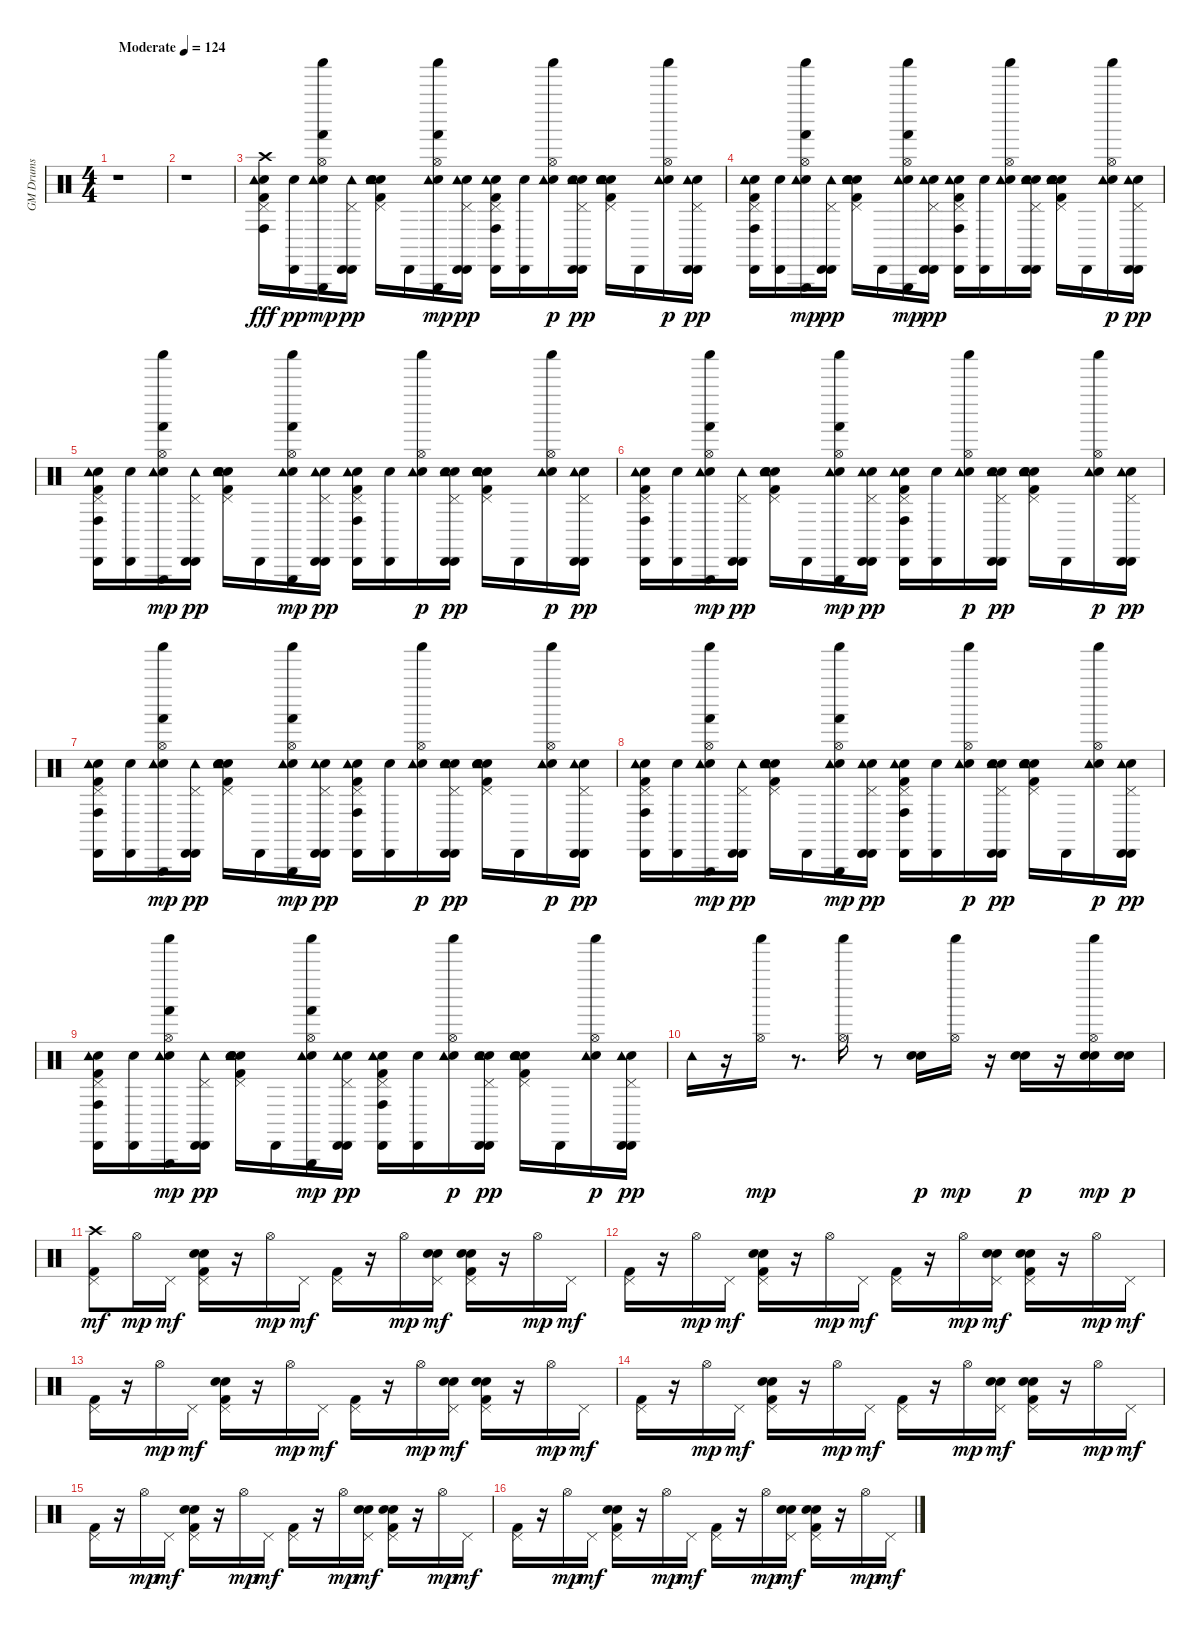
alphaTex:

\track ("GM Drums" "GM Drums") {instrument percussion}
\staff {score}
\articulation defaults
\ts (4 4)
\tempo (124 "Moderate")
\clef neutral
\ks c
r.1{dy fff} |
r.1 |
("Snare (hit)" "Kick (hit) 2" "Pedal Hi-Hat (hit)" "Crash high (hit)" "Tambourine (hit)" "Conga high (hit)").16 ("Snare (hit)" "Cabasa (hit)").16{dy pp} ("Snare (hit)" "Hi-Hat (open)" "Tambourine (hit)" "Hand (hit)" "Triangle (hit)" "Shaker (hit)").16{dy mp} ("Pedal Hi-Hat (hit)" "Tambourine (hit)" "Cabasa (hit)" "Cabasa (hit)").16{dy pp} ("Snare (hit)" "Kick (hit) 2" "Snare (hit) 2" "Hand Clap (hit)" "Pedal Hi-Hat (hit)" "Tambourine (hit)").16 "Cabasa (hit)".16 ("Snare (hit)" "Hi-Hat (open)" "Tambourine (hit)" "Hand (hit)" "Triangle (hit)" "Shaker (hit)").16{dy mp} ("Snare (hit)" "Pedal Hi-Hat (hit)" "Tambourine (hit)" "Cabasa (hit)" "Cabasa (hit)").16{dy pp} ("Snare (hit)" "Kick (hit) 2" "Pedal Hi-Hat (hit)" "Tambourine (hit)" "Conga high (hit)" "Cabasa (hit)").16 ("Snare (hit)" "Cabasa (hit)").16 ("Snare (hit)" "Hi-Hat (open)" "Tambourine (hit)" "Shaker (hit)").16{dy p} ("Snare (hit) 2" "Hand Clap (hit)" "Pedal Hi-Hat (hit)" "Tambourine (hit)" "Cabasa (hit)" "Cabasa (hit)").16{dy pp} ("Snare (hit)" "Kick (hit) 2" "Snare (hit) 2" "Hand Clap (hit)" "Pedal Hi-Hat (hit)" "Tambourine (hit)").16 "Cabasa (hit)".16 ("Snare (hit)" "Hi-Hat (open)" "Tambourine (hit)" "Shaker (hit)").16{dy p} ("Snare (hit)" "Pedal Hi-Hat (hit)" "Tambourine (hit)" "Cabasa (hit)" "Cabasa (hit)").16{dy pp} |
("Snare (hit)" "Kick (hit) 2" "Pedal Hi-Hat (hit)" "Tambourine (hit)" "Conga high (hit)" "Cabasa (hit)").16 ("Snare (hit)" "Cabasa (hit)").16 ("Snare (hit)" "Hi-Hat (open)" "Tambourine (hit)" "Hand (hit)" "Triangle (hit)" "Shaker (hit)").16{dy mp} ("Pedal Hi-Hat (hit)" "Tambourine (hit)" "Cabasa (hit)" "Cabasa (hit)").16{dy pp} ("Snare (hit)" "Kick (hit) 2" "Snare (hit) 2" "Hand Clap (hit)" "Pedal Hi-Hat (hit)" "Tambourine (hit)").16 "Cabasa (hit)".16 ("Snare (hit)" "Hi-Hat (open)" "Tambourine (hit)" "Hand (hit)" "Triangle (hit)" "Shaker (hit)").16{dy mp} ("Snare (hit)" "Pedal Hi-Hat (hit)" "Tambourine (hit)" "Cabasa (hit)" "Cabasa (hit)").16{dy pp} ("Snare (hit)" "Kick (hit) 2" "Pedal Hi-Hat (hit)" "Tambourine (hit)" "Conga high (hit)" "Cabasa (hit)").16 ("Snare (hit)" "Cabasa (hit)").16 ("Snare (hit)" "Hi-Hat (open)" "Tambourine (hit)" "Shaker (hit)").16 ("Snare (hit) 2" "Hand Clap (hit)" "Pedal Hi-Hat (hit)" "Tambourine (hit)" "Cabasa (hit)" "Cabasa (hit)").16 ("Snare (hit)" "Kick (hit) 2" "Snare (hit) 2" "Hand Clap (hit)" "Pedal Hi-Hat (hit)" "Tambourine (hit)").16 "Cabasa (hit)".16 ("Snare (hit)" "Hi-Hat (open)" "Tambourine (hit)" "Shaker (hit)").16{dy p} ("Snare (hit)" "Pedal Hi-Hat (hit)" "Tambourine (hit)" "Cabasa (hit)" "Cabasa (hit)").16{dy pp} |
("Snare (hit)" "Kick (hit) 2" "Pedal Hi-Hat (hit)" "Tambourine (hit)" "Conga high (hit)" "Cabasa (hit)").16 ("Snare (hit)" "Cabasa (hit)").16 ("Snare (hit)" "Hi-Hat (open)" "Tambourine (hit)" "Hand (hit)" "Triangle (hit)" "Shaker (hit)").16{dy mp} ("Pedal Hi-Hat (hit)" "Tambourine (hit)" "Cabasa (hit)" "Cabasa (hit)").16{dy pp} ("Snare (hit)" "Kick (hit) 2" "Snare (hit) 2" "Hand Clap (hit)" "Pedal Hi-Hat (hit)" "Tambourine (hit)").16 "Cabasa (hit)".16 ("Snare (hit)" "Hi-Hat (open)" "Tambourine (hit)" "Hand (hit)" "Triangle (hit)" "Shaker (hit)").16{dy mp} ("Snare (hit)" "Pedal Hi-Hat (hit)" "Tambourine (hit)" "Cabasa (hit)" "Cabasa (hit)").16{dy pp} ("Snare (hit)" "Kick (hit) 2" "Pedal Hi-Hat (hit)" "Tambourine (hit)" "Conga high (hit)" "Cabasa (hit)").16 ("Snare (hit)" "Cabasa (hit)").16 ("Snare (hit)" "Hi-Hat (open)" "Tambourine (hit)" "Shaker (hit)").16{dy p} ("Snare (hit) 2" "Hand Clap (hit)" "Pedal Hi-Hat (hit)" "Tambourine (hit)" "Cabasa (hit)" "Cabasa (hit)").16{dy pp} ("Snare (hit)" "Kick (hit) 2" "Snare (hit) 2" "Hand Clap (hit)" "Pedal Hi-Hat (hit)" "Tambourine (hit)").16 "Cabasa (hit)".16 ("Snare (hit)" "Hi-Hat (open)" "Tambourine (hit)" "Shaker (hit)").16{dy p} ("Snare (hit)" "Pedal Hi-Hat (hit)" "Tambourine (hit)" "Cabasa (hit)" "Cabasa (hit)").16{dy pp} |
("Snare (hit)" "Kick (hit) 2" "Pedal Hi-Hat (hit)" "Tambourine (hit)" "Conga high (hit)" "Cabasa (hit)").16 ("Snare (hit)" "Cabasa (hit)").16 ("Snare (hit)" "Hi-Hat (open)" "Tambourine (hit)" "Hand (hit)" "Triangle (hit)" "Shaker (hit)").16{dy mp} ("Pedal Hi-Hat (hit)" "Tambourine (hit)" "Cabasa (hit)" "Cabasa (hit)").16{dy pp} ("Snare (hit)" "Kick (hit) 2" "Snare (hit) 2" "Hand Clap (hit)" "Pedal Hi-Hat (hit)" "Tambourine (hit)").16 "Cabasa (hit)".16 ("Snare (hit)" "Hi-Hat (open)" "Tambourine (hit)" "Hand (hit)" "Triangle (hit)" "Shaker (hit)").16{dy mp} ("Snare (hit)" "Pedal Hi-Hat (hit)" "Tambourine (hit)" "Cabasa (hit)" "Cabasa (hit)").16{dy pp} ("Snare (hit)" "Kick (hit) 2" "Pedal Hi-Hat (hit)" "Tambourine (hit)" "Conga high (hit)" "Cabasa (hit)").16 ("Snare (hit)" "Cabasa (hit)").16 ("Snare (hit)" "Hi-Hat (open)" "Tambourine (hit)" "Shaker (hit)").16{dy p} ("Snare (hit) 2" "Hand Clap (hit)" "Pedal Hi-Hat (hit)" "Tambourine (hit)" "Cabasa (hit)" "Cabasa (hit)").16{dy pp} ("Snare (hit)" "Kick (hit) 2" "Snare (hit) 2" "Hand Clap (hit)" "Pedal Hi-Hat (hit)" "Tambourine (hit)").16 "Cabasa (hit)".16 ("Snare (hit)" "Hi-Hat (open)" "Tambourine (hit)" "Shaker (hit)").16{dy p} ("Snare (hit)" "Pedal Hi-Hat (hit)" "Tambourine (hit)" "Cabasa (hit)" "Cabasa (hit)").16{dy pp} |
("Snare (hit)" "Kick (hit) 2" "Pedal Hi-Hat (hit)" "Tambourine (hit)" "Conga high (hit)" "Cabasa (hit)").16 ("Snare (hit)" "Cabasa (hit)").16 ("Snare (hit)" "Hi-Hat (open)" "Tambourine (hit)" "Hand (hit)" "Triangle (hit)" "Shaker (hit)").16{dy mp} ("Pedal Hi-Hat (hit)" "Tambourine (hit)" "Cabasa (hit)" "Cabasa (hit)").16{dy pp} ("Snare (hit)" "Kick (hit) 2" "Snare (hit) 2" "Hand Clap (hit)" "Pedal Hi-Hat (hit)" "Tambourine (hit)").16 "Cabasa (hit)".16 ("Snare (hit)" "Hi-Hat (open)" "Tambourine (hit)" "Hand (hit)" "Triangle (hit)" "Shaker (hit)").16{dy mp} ("Snare (hit)" "Pedal Hi-Hat (hit)" "Tambourine (hit)" "Cabasa (hit)" "Cabasa (hit)").16{dy pp} ("Snare (hit)" "Kick (hit) 2" "Pedal Hi-Hat (hit)" "Tambourine (hit)" "Conga high (hit)" "Cabasa (hit)").16 ("Snare (hit)" "Cabasa (hit)").16 ("Snare (hit)" "Hi-Hat (open)" "Tambourine (hit)" "Shaker (hit)").16{dy p} ("Snare (hit) 2" "Hand Clap (hit)" "Pedal Hi-Hat (hit)" "Tambourine (hit)" "Cabasa (hit)" "Cabasa (hit)").16{dy pp} ("Snare (hit)" "Kick (hit) 2" "Snare (hit) 2" "Hand Clap (hit)" "Pedal Hi-Hat (hit)" "Tambourine (hit)").16 "Cabasa (hit)".16 ("Snare (hit)" "Hi-Hat (open)" "Tambourine (hit)" "Shaker (hit)").16{dy p} ("Snare (hit)" "Pedal Hi-Hat (hit)" "Tambourine (hit)" "Cabasa (hit)" "Cabasa (hit)").16{dy pp} |
("Snare (hit)" "Kick (hit) 2" "Pedal Hi-Hat (hit)" "Tambourine (hit)" "Conga high (hit)" "Cabasa (hit)").16 ("Snare (hit)" "Cabasa (hit)").16 ("Snare (hit)" "Hi-Hat (open)" "Tambourine (hit)" "Hand (hit)" "Triangle (hit)" "Shaker (hit)").16{dy mp} ("Pedal Hi-Hat (hit)" "Tambourine (hit)" "Cabasa (hit)" "Cabasa (hit)").16{dy pp} ("Snare (hit)" "Kick (hit) 2" "Snare (hit) 2" "Hand Clap (hit)" "Pedal Hi-Hat (hit)" "Tambourine (hit)").16 "Cabasa (hit)".16 ("Snare (hit)" "Hi-Hat (open)" "Tambourine (hit)" "Hand (hit)" "Triangle (hit)" "Shaker (hit)").16{dy mp} ("Snare (hit)" "Pedal Hi-Hat (hit)" "Tambourine (hit)" "Cabasa (hit)" "Cabasa (hit)").16{dy pp} ("Snare (hit)" "Kick (hit) 2" "Pedal Hi-Hat (hit)" "Tambourine (hit)" "Conga high (hit)" "Cabasa (hit)").16 ("Snare (hit)" "Cabasa (hit)").16 ("Snare (hit)" "Hi-Hat (open)" "Tambourine (hit)" "Shaker (hit)").16{dy p} ("Snare (hit) 2" "Hand Clap (hit)" "Pedal Hi-Hat (hit)" "Tambourine (hit)" "Cabasa (hit)" "Cabasa (hit)").16{dy pp} ("Snare (hit)" "Kick (hit) 2" "Snare (hit) 2" "Hand Clap (hit)" "Pedal Hi-Hat (hit)" "Tambourine (hit)").16 "Cabasa (hit)".16 ("Snare (hit)" "Hi-Hat (open)" "Tambourine (hit)" "Shaker (hit)").16{dy p} ("Snare (hit)" "Pedal Hi-Hat (hit)" "Tambourine (hit)" "Cabasa (hit)" "Cabasa (hit)").16{dy pp} |
("Snare (hit)" "Kick (hit) 2" "Pedal Hi-Hat (hit)" "Tambourine (hit)" "Conga high (hit)" "Cabasa (hit)").16 ("Snare (hit)" "Cabasa (hit)").16 ("Snare (hit)" "Hi-Hat (open)" "Tambourine (hit)" "Hand (hit)" "Triangle (hit)" "Shaker (hit)").16{dy mp} ("Pedal Hi-Hat (hit)" "Tambourine (hit)" "Cabasa (hit)" "Cabasa (hit)").16{dy pp} ("Snare (hit)" "Kick (hit) 2" "Snare (hit) 2" "Hand Clap (hit)" "Pedal Hi-Hat (hit)" "Tambourine (hit)").16 "Cabasa (hit)".16 ("Snare (hit)" "Hi-Hat (open)" "Tambourine (hit)" "Hand (hit)" "Triangle (hit)" "Shaker (hit)").16{dy mp} ("Snare (hit)" "Pedal Hi-Hat (hit)" "Tambourine (hit)" "Cabasa (hit)" "Cabasa (hit)").16{dy pp} ("Snare (hit)" "Kick (hit) 2" "Pedal Hi-Hat (hit)" "Tambourine (hit)" "Conga high (hit)" "Cabasa (hit)").16 ("Snare (hit)" "Cabasa (hit)").16 ("Snare (hit)" "Hi-Hat (open)" "Tambourine (hit)" "Shaker (hit)").16{dy p} ("Snare (hit) 2" "Hand Clap (hit)" "Pedal Hi-Hat (hit)" "Tambourine (hit)" "Cabasa (hit)" "Cabasa (hit)").16{dy pp} ("Snare (hit)" "Kick (hit) 2" "Snare (hit) 2" "Hand Clap (hit)" "Pedal Hi-Hat (hit)" "Tambourine (hit)").16 "Cabasa (hit)".16 ("Snare (hit)" "Hi-Hat (open)" "Tambourine (hit)" "Shaker (hit)").16{dy p} ("Snare (hit)" "Pedal Hi-Hat (hit)" "Tambourine (hit)" "Cabasa (hit)" "Cabasa (hit)").16{dy pp} |
"Tambourine (hit)".16 r.16 ("Hi-Hat (open)" "Shaker (hit)").16{dy mp} r.8{d} ("Hi-Hat (open)" "Shaker (hit)").16 r.8 ("Snare (hit) 2" "Hand Clap (hit)").16{dy p} ("Hi-Hat (open)" "Shaker (hit)").16{dy mp} r.16 ("Snare (hit) 2" "Hand Clap (hit)").16{dy p} r.16 ("Snare (hit) 2" "Hand Clap (hit)" "Hi-Hat (open)" "Shaker (hit)").16{dy mp} ("Snare (hit) 2" "Hand Clap (hit)").16{dy p} |
("Kick (hit) 2" "Pedal Hi-Hat (hit)" "Crash high (hit)").8{dy mf} "Hi-Hat (open)".16{dy mp} "Pedal Hi-Hat (hit)".16{dy mf} ("Kick (hit) 2" "Snare (hit) 2" "Hand Clap (hit)" "Pedal Hi-Hat (hit)").16 r.16 "Hi-Hat (open)".16{dy mp} "Pedal Hi-Hat (hit)".16{dy mf} ("Kick (hit) 2" "Pedal Hi-Hat (hit)").16 r.16 "Hi-Hat (open)".16{dy mp} ("Snare (hit) 2" "Hand Clap (hit)" "Pedal Hi-Hat (hit)").16{dy mf} ("Kick (hit) 2" "Snare (hit) 2" "Hand Clap (hit)" "Pedal Hi-Hat (hit)").16 r.16 "Hi-Hat (open)".16{dy mp} "Pedal Hi-Hat (hit)".16{dy mf} |
("Kick (hit) 2" "Pedal Hi-Hat (hit)").16 r.16 "Hi-Hat (open)".16{dy mp} "Pedal Hi-Hat (hit)".16{dy mf} ("Kick (hit) 2" "Snare (hit) 2" "Hand Clap (hit)" "Pedal Hi-Hat (hit)").16 r.16 "Hi-Hat (open)".16{dy mp} "Pedal Hi-Hat (hit)".16{dy mf} ("Kick (hit) 2" "Pedal Hi-Hat (hit)").16 r.16 "Hi-Hat (open)".16{dy mp} ("Snare (hit) 2" "Hand Clap (hit)" "Pedal Hi-Hat (hit)").16{dy mf} ("Kick (hit) 2" "Snare (hit) 2" "Hand Clap (hit)" "Pedal Hi-Hat (hit)").16 r.16 "Hi-Hat (open)".16{dy mp} "Pedal Hi-Hat (hit)".16{dy mf} |
("Kick (hit) 2" "Pedal Hi-Hat (hit)").16 r.16 "Hi-Hat (open)".16{dy mp} "Pedal Hi-Hat (hit)".16{dy mf} ("Kick (hit) 2" "Snare (hit) 2" "Hand Clap (hit)" "Pedal Hi-Hat (hit)").16 r.16 "Hi-Hat (open)".16{dy mp} "Pedal Hi-Hat (hit)".16{dy mf} ("Kick (hit) 2" "Pedal Hi-Hat (hit)").16 r.16 "Hi-Hat (open)".16{dy mp} ("Snare (hit) 2" "Hand Clap (hit)" "Pedal Hi-Hat (hit)").16{dy mf} ("Kick (hit) 2" "Snare (hit) 2" "Hand Clap (hit)" "Pedal Hi-Hat (hit)").16 r.16 "Hi-Hat (open)".16{dy mp} "Pedal Hi-Hat (hit)".16{dy mf} |
("Kick (hit) 2" "Pedal Hi-Hat (hit)").16 r.16 "Hi-Hat (open)".16{dy mp} "Pedal Hi-Hat (hit)".16{dy mf} ("Kick (hit) 2" "Snare (hit) 2" "Hand Clap (hit)" "Pedal Hi-Hat (hit)").16 r.16 "Hi-Hat (open)".16{dy mp} "Pedal Hi-Hat (hit)".16{dy mf} ("Kick (hit) 2" "Pedal Hi-Hat (hit)").16 r.16 "Hi-Hat (open)".16{dy mp} ("Snare (hit) 2" "Hand Clap (hit)" "Pedal Hi-Hat (hit)").16{dy mf} ("Kick (hit) 2" "Snare (hit) 2" "Hand Clap (hit)" "Pedal Hi-Hat (hit)").16 r.16 "Hi-Hat (open)".16{dy mp} "Pedal Hi-Hat (hit)".16{dy mf} |
("Kick (hit) 2" "Pedal Hi-Hat (hit)").16 r.16 "Hi-Hat (open)".16{dy mp} "Pedal Hi-Hat (hit)".16{dy mf} ("Kick (hit) 2" "Snare (hit) 2" "Hand Clap (hit)" "Pedal Hi-Hat (hit)").16 r.16 "Hi-Hat (open)".16{dy mp} "Pedal Hi-Hat (hit)".16{dy mf} ("Kick (hit) 2" "Pedal Hi-Hat (hit)").16 r.16 "Hi-Hat (open)".16{dy mp} ("Snare (hit) 2" "Hand Clap (hit)" "Pedal Hi-Hat (hit)").16{dy mf} ("Kick (hit) 2" "Snare (hit) 2" "Hand Clap (hit)" "Pedal Hi-Hat (hit)").16 r.16 "Hi-Hat (open)".16{dy mp} "Pedal Hi-Hat (hit)".16{dy mf} |
("Kick (hit) 2" "Pedal Hi-Hat (hit)").16 r.16 "Hi-Hat (open)".16{dy mp} "Pedal Hi-Hat (hit)".16{dy mf} ("Kick (hit) 2" "Snare (hit) 2" "Hand Clap (hit)" "Pedal Hi-Hat (hit)").16 r.16 "Hi-Hat (open)".16{dy mp} "Pedal Hi-Hat (hit)".16{dy mf} ("Kick (hit) 2" "Pedal Hi-Hat (hit)").16 r.16 "Hi-Hat (open)".16{dy mp} ("Snare (hit) 2" "Hand Clap (hit)" "Pedal Hi-Hat (hit)").16{dy mf} ("Kick (hit) 2" "Snare (hit) 2" "Hand Clap (hit)" "Pedal Hi-Hat (hit)").16 r.16 "Hi-Hat (open)".16{dy mp} "Pedal Hi-Hat (hit)".16{dy mf}
